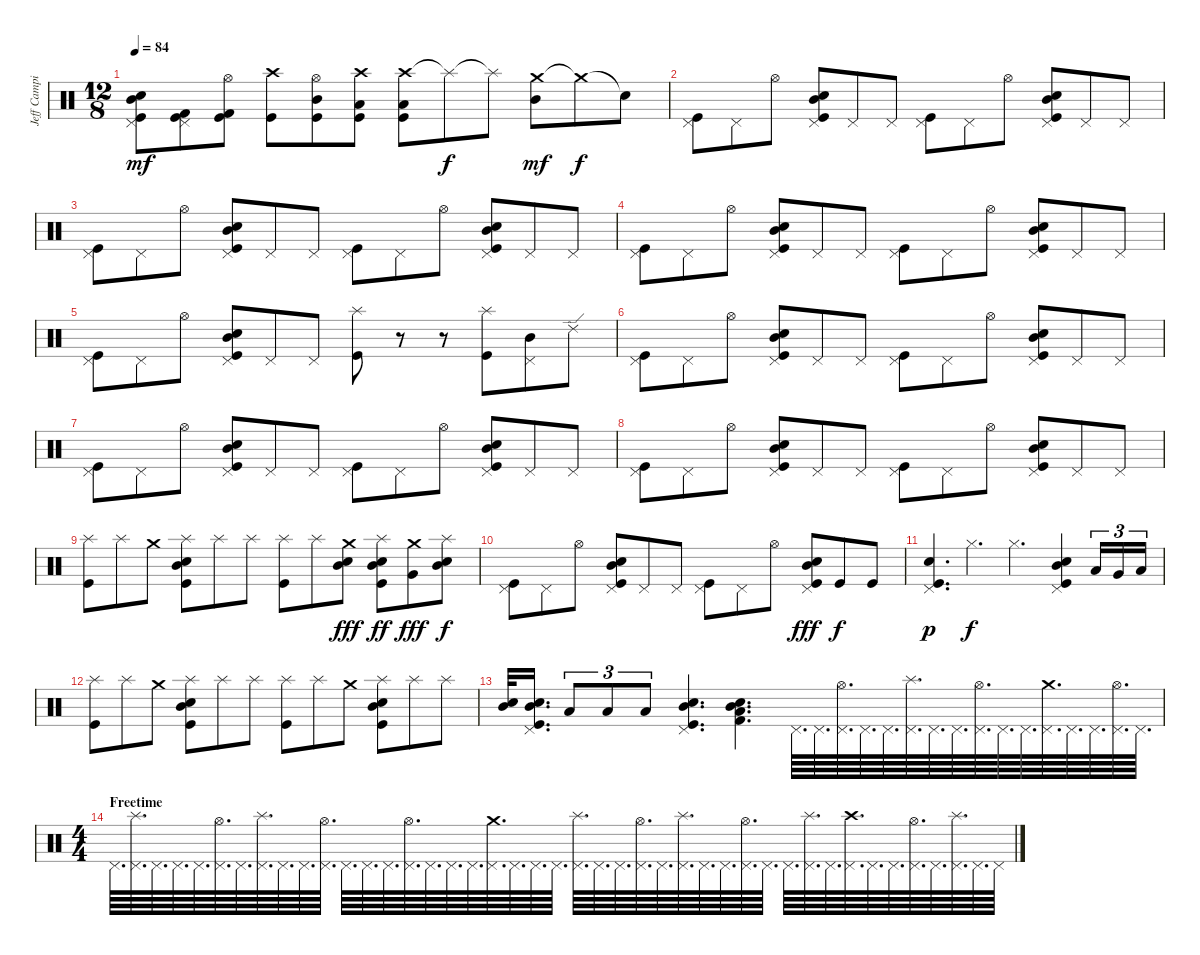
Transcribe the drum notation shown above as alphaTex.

\track ("Jeff Campitelli" "Jeff Campi") {instrument percussion}
\staff {score}
\articulation defaults
\ts (12 8)
\tempo 84
\clef neutral
\ks c
("Pedal Hi-Hat (hit)" "Snare (hit) 2" "Mid Tom (hit)" "Kick (hit)").8{dy mf} ("Pedal Hi-Hat (hit)" "Kick (hit)" "Kick (hit) 2").8 ("Hi-Hat (open)" "Kick (hit)" "Kick (hit) 2").8 ("Crash high (hit)" "Kick (hit)").8 ("Hi-Hat (open)" "Mid Tom (hit)" "Kick (hit)").8 ("Crash high (hit)" "Low Tom (hit)" "Kick (hit)").8 ("Crash high (hit)" "Low Tom (hit)" "Kick (hit)").8 "Splash (hit)"{t}.8{dy f} "Splash (hit)"{t}.8 ("Crash medium (hit)" "Mid Tom (hit)").8{dy mf} "Crash medium (hit)"{t}.8{dy f} "Snare (hit)"{t}.8 |
("Pedal Hi-Hat (hit)" "Kick (hit)").8 "Pedal Hi-Hat (hit)".8 "Hi-Hat (open)".8 ("Pedal Hi-Hat (hit)" "Snare (hit) 2" "Mid Tom (hit)" "Kick (hit)").8 "Pedal Hi-Hat (hit)".8 "Pedal Hi-Hat (hit)".8 ("Pedal Hi-Hat (hit)" "Kick (hit)").8 "Pedal Hi-Hat (hit)".8 "Hi-Hat (open)".8 ("Pedal Hi-Hat (hit)" "Snare (hit) 2" "Mid Tom (hit)" "Kick (hit)").8 "Pedal Hi-Hat (hit)".8 "Pedal Hi-Hat (hit)".8 |
("Pedal Hi-Hat (hit)" "Kick (hit)").8 "Pedal Hi-Hat (hit)".8 "Hi-Hat (open)".8 ("Pedal Hi-Hat (hit)" "Snare (hit) 2" "Mid Tom (hit)" "Kick (hit)").8 "Pedal Hi-Hat (hit)".8 "Pedal Hi-Hat (hit)".8 ("Pedal Hi-Hat (hit)" "Kick (hit)").8 "Pedal Hi-Hat (hit)".8 "Hi-Hat (open)".8 ("Pedal Hi-Hat (hit)" "Snare (hit) 2" "Mid Tom (hit)" "Kick (hit)").8 "Pedal Hi-Hat (hit)".8 "Pedal Hi-Hat (hit)".8 |
("Pedal Hi-Hat (hit)" "Kick (hit)").8 "Pedal Hi-Hat (hit)".8 "Hi-Hat (open)".8 ("Pedal Hi-Hat (hit)" "Snare (hit) 2" "Mid Tom (hit)" "Kick (hit)").8 "Pedal Hi-Hat (hit)".8 "Pedal Hi-Hat (hit)".8 ("Pedal Hi-Hat (hit)" "Kick (hit)").8 "Pedal Hi-Hat (hit)".8 "Hi-Hat (open)".8 ("Pedal Hi-Hat (hit)" "Snare (hit) 2" "Mid Tom (hit)" "Kick (hit)").8 "Pedal Hi-Hat (hit)".8 "Pedal Hi-Hat (hit)".8 |
("Pedal Hi-Hat (hit)" "Kick (hit)").8 "Pedal Hi-Hat (hit)".8 "Hi-Hat (open)".8 ("Pedal Hi-Hat (hit)" "Snare (hit) 2" "Mid Tom (hit)" "Kick (hit)").8 "Pedal Hi-Hat (hit)".8 "Pedal Hi-Hat (hit)".8 ("Splash (hit)" "Kick (hit)").8 r.8 r.8 ("Splash (hit)" "Kick (hit)").8 ("Pedal Hi-Hat (hit)" "Mid Tom (hit)").8 "Ride (edge) 2".8 |
("Pedal Hi-Hat (hit)" "Kick (hit)").8 "Pedal Hi-Hat (hit)".8 "Hi-Hat (open)".8 ("Pedal Hi-Hat (hit)" "Snare (hit) 2" "Mid Tom (hit)" "Kick (hit)").8 "Pedal Hi-Hat (hit)".8 "Pedal Hi-Hat (hit)".8 ("Pedal Hi-Hat (hit)" "Kick (hit)").8 "Pedal Hi-Hat (hit)".8 "Hi-Hat (open)".8 ("Pedal Hi-Hat (hit)" "Snare (hit) 2" "Mid Tom (hit)" "Kick (hit)").8 "Pedal Hi-Hat (hit)".8 "Pedal Hi-Hat (hit)".8 |
("Pedal Hi-Hat (hit)" "Kick (hit)").8 "Pedal Hi-Hat (hit)".8 "Hi-Hat (open)".8 ("Pedal Hi-Hat (hit)" "Snare (hit) 2" "Mid Tom (hit)" "Kick (hit)").8 "Pedal Hi-Hat (hit)".8 "Pedal Hi-Hat (hit)".8 ("Pedal Hi-Hat (hit)" "Kick (hit)").8 "Pedal Hi-Hat (hit)".8 "Hi-Hat (open)".8 ("Pedal Hi-Hat (hit)" "Snare (hit) 2" "Mid Tom (hit)" "Kick (hit)").8 "Pedal Hi-Hat (hit)".8 "Pedal Hi-Hat (hit)".8 |
("Pedal Hi-Hat (hit)" "Kick (hit)").8 "Pedal Hi-Hat (hit)".8 "Hi-Hat (open)".8 ("Pedal Hi-Hat (hit)" "Snare (hit) 2" "Mid Tom (hit)" "Kick (hit)").8 "Pedal Hi-Hat (hit)".8 "Pedal Hi-Hat (hit)".8 ("Pedal Hi-Hat (hit)" "Kick (hit)").8 "Pedal Hi-Hat (hit)".8 "Hi-Hat (open)".8 ("Pedal Hi-Hat (hit)" "Snare (hit) 2" "Mid Tom (hit)" "Kick (hit)").8 "Pedal Hi-Hat (hit)".8 "Pedal Hi-Hat (hit)".8 |
("Splash (hit)" "Kick (hit)").8 "Splash (hit)".8 "Crash medium (hit)".8 ("Splash (hit)" "Snare (hit) 2" "Mid Tom (hit)" "Kick (hit)").8 "Splash (hit)".8 "Splash (hit)".8 ("Splash (hit)" "Kick (hit)").8 "Splash (hit)".8 ("Crash medium (hit)" "Snare (hit) 2" "Mid Tom (hit)").8{dy fff} ("Splash (hit)" "Snare (hit) 2" "Mid Tom (hit)" "Kick (hit)").8{dy ff} ("Crash medium (hit)" "Very Low Tom (hit)").8{dy fff} ("Splash (hit)" "Snare (hit) 2" "Mid Tom (hit)").8{dy f} |
("Pedal Hi-Hat (hit)" "Kick (hit)").8 "Pedal Hi-Hat (hit)".8 "Hi-Hat (open)".8 ("Pedal Hi-Hat (hit)" "Snare (hit) 2" "Mid Tom (hit)" "Kick (hit)").8 "Pedal Hi-Hat (hit)".8 "Pedal Hi-Hat (hit)".8 ("Pedal Hi-Hat (hit)" "Kick (hit)").8 "Pedal Hi-Hat (hit)".8 "Hi-Hat (open)".8 ("Pedal Hi-Hat (hit)" "Snare (hit) 2" "Mid Tom (hit)" "Kick (hit)").8{dy fff} "Kick (hit)".8{dy f} "Kick (hit)".8 |
("Pedal Hi-Hat (hit)" "Snare (hit) 2" "Kick (hit)").4{d dy p} "Hi-Hat (closed)".4{d dy f} "Hi-Hat (closed)".4{d} ("Pedal Hi-Hat (hit)" "Snare (hit) 2" "Mid Tom (hit)" "Kick (hit)").4 "Low Tom (hit)".16{tu (3 2)} "Very Low Tom (hit)".16{tu (3 2)} "Low Floor Tom (hit)".16{tu (3 2)} |
("Splash (hit)" "Kick (hit)").8 "Splash (hit)".8 "Crash medium (hit)".8 ("Splash (hit)" "Snare (hit) 2" "Mid Tom (hit)" "Kick (hit)").8 "Splash (hit)".8 "Splash (hit)".8 ("Splash (hit)" "Kick (hit)").8 "Splash (hit)".8 "Crash medium (hit)".8 ("Splash (hit)" "Snare (hit) 2" "Mid Tom (hit)" "Kick (hit)").8 "Splash (hit)".8 "Splash (hit)".8 |
("Snare (hit) 2" "Mid Tom (hit)").32 ("Pedal Hi-Hat (hit)" "Snare (hit) 2" "Mid Tom (hit)" "Kick (hit)").16{d} "Low Tom (hit)".8{tu (3 2)} "Low Tom (hit)".8{tu (3 2)} "Low Tom (hit)".8{tu (3 2)} ("Pedal Hi-Hat (hit)" "Snare (hit) 2" "Mid Tom (hit)" "Kick (hit)").4{d} ("Mid Tom (hit)" "Snare (hit) 2" "Low Tom (hit)" "Kick (hit) 2").4{d} "Pedal Hi-Hat (hit)".64{d} "Pedal Hi-Hat (hit)".64{d} ("Pedal Hi-Hat (hit)" "Hi-Hat (open)").64{d} "Pedal Hi-Hat (hit)".64{d} "Pedal Hi-Hat (hit)".64{d} ("Pedal Hi-Hat (hit)" "Splash (hit)").64{d} "Pedal Hi-Hat (hit)".64{d} "Pedal Hi-Hat (hit)".64{d} ("Pedal Hi-Hat (hit)" "Hi-Hat (open)").64{d} "Pedal Hi-Hat (hit)".64{d} "Pedal Hi-Hat (hit)".64{d} ("Pedal Hi-Hat (hit)" "Crash medium (hit)").64{d} "Pedal Hi-Hat (hit)".64{d} "Pedal Hi-Hat (hit)".64{d} ("Pedal Hi-Hat (hit)" "Hi-Hat (open)").64{d} "Pedal Hi-Hat (hit)".64{d} |
\ts (4 4)
\section ("" "Freetime")
"Pedal Hi-Hat (hit)".64{d} ("Pedal Hi-Hat (hit)" "Splash (hit)").64{d} "Pedal Hi-Hat (hit)".64{d} "Pedal Hi-Hat (hit)".64{d} "Pedal Hi-Hat (hit)".64{d} ("Pedal Hi-Hat (hit)" "Hi-Hat (open)").64{d} "Pedal Hi-Hat (hit)".64{d} ("Pedal Hi-Hat (hit)" "Splash (hit)").64{d} "Pedal Hi-Hat (hit)".64{d} "Pedal Hi-Hat (hit)".64{d} ("Pedal Hi-Hat (hit)" "Hi-Hat (open)").64{d} "Pedal Hi-Hat (hit)".64{d} "Pedal Hi-Hat (hit)".64{d} "Pedal Hi-Hat (hit)".64{d} ("Pedal Hi-Hat (hit)" "Hi-Hat (open)").64{d} "Pedal Hi-Hat (hit)".64{d} "Pedal Hi-Hat (hit)".64{d} "Pedal Hi-Hat (hit)".64{d} ("Pedal Hi-Hat (hit)" "Crash medium (hit)").64{d} "Pedal Hi-Hat (hit)".64{d} "Pedal Hi-Hat (hit)".64{d} "Pedal Hi-Hat (hit)".64{d} ("Pedal Hi-Hat (hit)" "Splash (hit)").64{d} "Pedal Hi-Hat (hit)".64{d} "Pedal Hi-Hat (hit)".64{d} ("Pedal Hi-Hat (hit)" "Hi-Hat (open)").64{d} "Pedal Hi-Hat (hit)".64{d} ("Pedal Hi-Hat (hit)" "Splash (hit)").64{d} "Pedal Hi-Hat (hit)".64{d} "Pedal Hi-Hat (hit)".64{d} ("Pedal Hi-Hat (hit)" "Hi-Hat (open)").64{d} "Pedal Hi-Hat (hit)".64{d} "Pedal Hi-Hat (hit)".64{d} ("Pedal Hi-Hat (hit)" "Splash (hit)").64{d} "Pedal Hi-Hat (hit)".64{d} ("Pedal Hi-Hat (hit)" "Crash high (hit)").64{d} "Pedal Hi-Hat (hit)".64{d} "Pedal Hi-Hat (hit)".64{d} ("Pedal Hi-Hat (hit)" "Hi-Hat (open)").64{d} "Pedal Hi-Hat (hit)".64{d} ("Pedal Hi-Hat (hit)" "Splash (hit)").64{d} "Pedal Hi-Hat (hit)".64{d} "Pedal Hi-Hat (hit)".64
